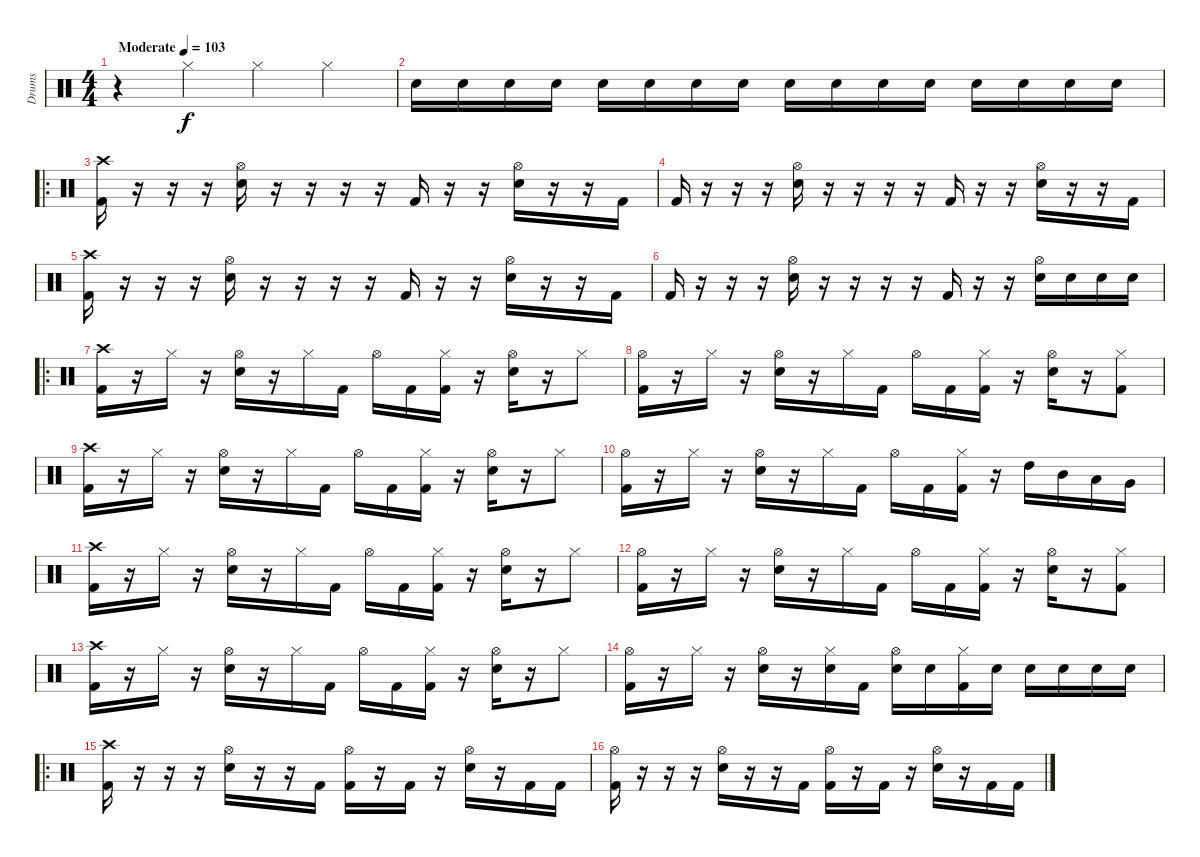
\track ("Drums" "Drums") {instrument percussion}
\staff {score}
\articulation defaults
\ts (4 4)
\tempo (103 "Moderate")
\clef neutral
\ks c
r.4{dy f} "Hi-Hat (closed)".4 "Hi-Hat (closed)".4 "Hi-Hat (closed)".4 |
"Snare (hit) 2".16 "Snare (hit) 2".16 "Snare (hit) 2".16 "Snare (hit) 2".16 "Snare (hit) 2".16 "Snare (hit) 2".16 "Snare (hit) 2".16 "Snare (hit) 2".16 "Snare (hit) 2".16 "Snare (hit) 2".16 "Snare (hit) 2".16 "Snare (hit) 2".16 "Snare (hit) 2".16 "Snare (hit) 2".16 "Snare (hit) 2".16 "Snare (hit) 2".16 |
\ro
("Crash high (hit)" "Kick (hit) 2").16 r.16 r.16 r.16 ("Hi-Hat (open)" "Snare (hit) 2").16 r.16 r.16 r.16 r.16 "Kick (hit) 2".16 r.16 r.16 ("Hi-Hat (open)" "Snare (hit) 2").16 r.16 r.16 "Kick (hit) 2".16 |
"Kick (hit) 2".16 r.16 r.16 r.16 ("Hi-Hat (open)" "Snare (hit) 2").16 r.16 r.16 r.16 r.16 "Kick (hit) 2".16 r.16 r.16 ("Hi-Hat (open)" "Snare (hit) 2").16 r.16 r.16 "Kick (hit) 2".16 |
("Crash high (hit)" "Kick (hit) 2").16 r.16 r.16 r.16 ("Hi-Hat (open)" "Snare (hit) 2").16 r.16 r.16 r.16 r.16 "Kick (hit) 2".16 r.16 r.16 ("Hi-Hat (open)" "Snare (hit) 2").16 r.16 r.16 "Kick (hit) 2".16 |
"Kick (hit) 2".16 r.16 r.16 r.16 ("Hi-Hat (open)" "Snare (hit) 2").16 r.16 r.16 r.16 r.16 "Kick (hit) 2".16 r.16 r.16 ("Hi-Hat (open)" "Snare (hit) 2").16 "Snare (hit) 2".16 "Snare (hit) 2".16 "Snare (hit) 2".16 |
\ro
("Crash high (hit)" "Kick (hit) 2").16 r.16 "Hi-Hat (closed)".16 r.16 ("Hi-Hat (open)" "Snare (hit) 2").16 r.16 "Hi-Hat (closed)".16 "Kick (hit) 2".16 "Hi-Hat (open)".16 "Kick (hit) 2".16 ("Hi-Hat (closed)" "Kick (hit) 2").16 r.16 ("Hi-Hat (open)" "Snare (hit) 2").16 r.16 "Hi-Hat (closed)".8 |
("Hi-Hat (open)" "Kick (hit) 2").16 r.16 "Hi-Hat (closed)".16 r.16 ("Hi-Hat (open)" "Snare (hit) 2").16 r.16 "Hi-Hat (closed)".16 "Kick (hit) 2".16 "Hi-Hat (open)".16 "Kick (hit) 2".16 ("Hi-Hat (closed)" "Kick (hit) 2").16 r.16 ("Hi-Hat (open)" "Snare (hit) 2").16 r.16 ("Hi-Hat (closed)" "Kick (hit) 2").8 |
("Crash high (hit)" "Kick (hit) 2").16 r.16 "Hi-Hat (closed)".16 r.16 ("Hi-Hat (open)" "Snare (hit) 2").16 r.16 "Hi-Hat (closed)".16 "Kick (hit) 2".16 "Hi-Hat (open)".16 "Kick (hit) 2".16 ("Hi-Hat (closed)" "Kick (hit) 2").16 r.16 ("Hi-Hat (open)" "Snare (hit) 2").16 r.16 "Hi-Hat (closed)".8 |
("Hi-Hat (open)" "Kick (hit) 2").16 r.16 "Hi-Hat (closed)".16 r.16 ("Hi-Hat (open)" "Snare (hit) 2").16 r.16 "Hi-Hat (closed)".16 "Kick (hit) 2".16 "Hi-Hat (open)".16 "Kick (hit) 2".16 ("Hi-Hat (closed)" "Kick (hit) 2").16 r.16 "High Tom (hit)".16 "Mid Tom (hit)".16 "Low Tom (hit)".16 "Very Low Tom (hit)".16 |
("Crash high (hit)" "Kick (hit) 2").16 r.16 "Hi-Hat (closed)".16 r.16 ("Hi-Hat (open)" "Snare (hit) 2").16 r.16 "Hi-Hat (closed)".16 "Kick (hit) 2".16 "Hi-Hat (open)".16 "Kick (hit) 2".16 ("Hi-Hat (closed)" "Kick (hit) 2").16 r.16 ("Hi-Hat (open)" "Snare (hit) 2").16 r.16 "Hi-Hat (closed)".8 |
("Hi-Hat (open)" "Kick (hit) 2").16 r.16 "Hi-Hat (closed)".16 r.16 ("Hi-Hat (open)" "Snare (hit) 2").16 r.16 "Hi-Hat (closed)".16 "Kick (hit) 2".16 "Hi-Hat (open)".16 "Kick (hit) 2".16 ("Hi-Hat (closed)" "Kick (hit) 2").16 r.16 ("Hi-Hat (open)" "Snare (hit) 2").16 r.16 ("Hi-Hat (closed)" "Kick (hit) 2").8 |
("Crash high (hit)" "Kick (hit) 2").16 r.16 "Hi-Hat (closed)".16 r.16 ("Hi-Hat (open)" "Snare (hit) 2").16 r.16 "Hi-Hat (closed)".16 "Kick (hit) 2".16 "Hi-Hat (open)".16 "Kick (hit) 2".16 ("Hi-Hat (closed)" "Kick (hit) 2").16 r.16 ("Hi-Hat (open)" "Snare (hit) 2").16 r.16 "Hi-Hat (closed)".8 |
("Hi-Hat (open)" "Kick (hit) 2").16 r.16 "Hi-Hat (closed)".16 r.16 ("Hi-Hat (open)" "Snare (hit) 2").16 r.16 ("Hi-Hat (closed)" "Snare (hit) 2").16 "Kick (hit) 2".16 ("Hi-Hat (open)" "Snare (hit) 2").16 "Snare (hit) 2".16 ("Hi-Hat (closed)" "Kick (hit) 2").16 "Snare (hit) 2".16 "Snare (hit) 2".16 "Snare (hit) 2".16 "Snare (hit) 2".16 "Snare (hit) 2".16 |
\ro
("Crash high (hit)" "Kick (hit) 2").16 r.16 r.16 r.16 ("Hi-Hat (open)" "Snare (hit) 2").16 r.16 r.16 "Kick (hit) 2".16 ("Hi-Hat (open)" "Kick (hit) 2").16 r.16 "Kick (hit) 2".16 r.16 ("Hi-Hat (open)" "Snare (hit) 2").16 r.16 "Kick (hit) 2".16 "Kick (hit) 2".16 |
("Hi-Hat (open)" "Kick (hit) 2").16 r.16 r.16 r.16 ("Hi-Hat (open)" "Snare (hit) 2").16 r.16 r.16 "Kick (hit) 2".16 ("Hi-Hat (open)" "Kick (hit) 2").16 r.16 "Kick (hit) 2".16 r.16 ("Hi-Hat (open)" "Snare (hit) 2").16 r.16 "Kick (hit) 2".16 "Kick (hit) 2".16
